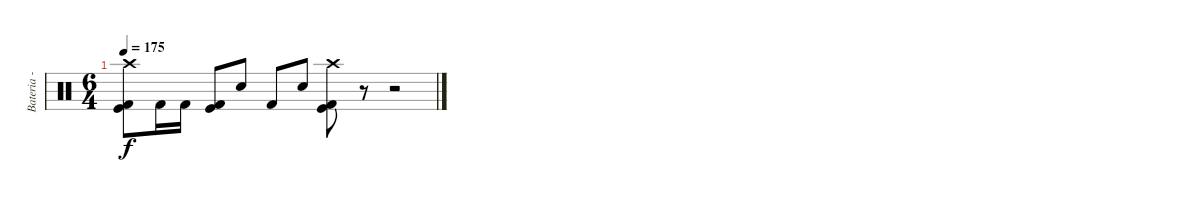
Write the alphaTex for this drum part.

\track ("Bateria - Drums" "Bateria - ") {instrument percussion}
\staff {score}
\articulation defaults
\ts (6 4)
\tempo 175
\clef neutral
\ks c
("Crash high (hit)" "Kick (hit)" "Kick (hit) 2").8{dy f} "Kick (hit) 2".16 "Kick (hit) 2".16 ("Kick (hit)" "Kick (hit) 2").8 "Snare (hit) 2".8 "Kick (hit) 2".8 "Snare (hit) 2".8 ("Crash high (hit)" "Kick (hit)" "Kick (hit) 2").8 r.8 r.2
